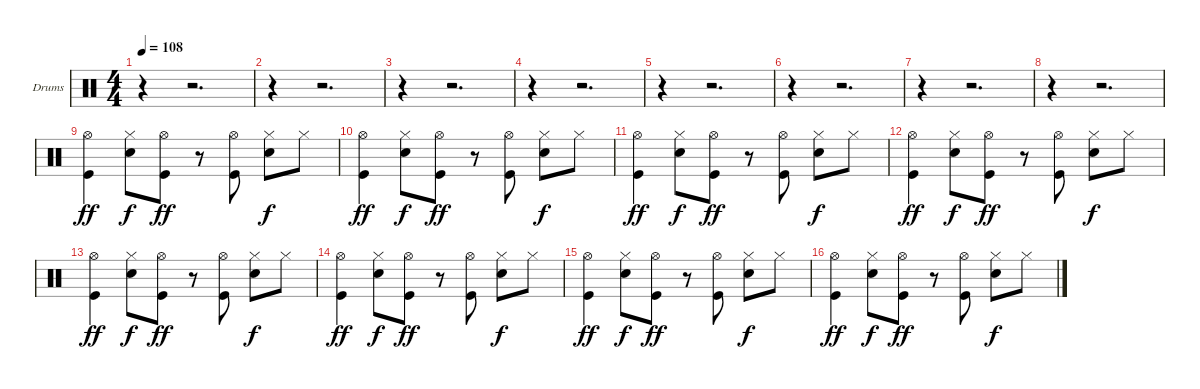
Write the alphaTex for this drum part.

\bracketExtendMode groupsimilarinstruments
\firstSystemTrackNameOrientation horizontal
\otherSystemsTrackNameOrientation horizontal
\track ("Drumkit" "Drums") {instrument percussion}
\staff {score}
\articulation defaults
\ts (4 4)
\tempo 108
\clef neutral
\ks c
r.4{dy f} r.2{d} |
r.4 r.2{d} |
r.4 r.2{d} |
r.4 r.2{d} |
r.4 r.2{d} |
r.4 r.2{d} |
r.4 r.2{d} |
r.4 r.2{d} |
("Hi-Hat (open)" "Kick (hit)").4{dy ff} ("Hi-Hat (closed)" "Snare (hit) 2").8{dy f} ("Hi-Hat (open)" "Kick (hit)").8{dy ff} r.8 ("Hi-Hat (open)" "Kick (hit)").8 ("Hi-Hat (closed)" "Snare (hit) 2").8{dy f} "Hi-Hat (closed)".8 |
("Hi-Hat (open)" "Kick (hit)").4{dy ff} ("Hi-Hat (closed)" "Snare (hit) 2").8{dy f} ("Hi-Hat (open)" "Kick (hit)").8{dy ff} r.8 ("Hi-Hat (open)" "Kick (hit)").8 ("Hi-Hat (closed)" "Snare (hit) 2").8{dy f} "Hi-Hat (closed)".8 |
("Hi-Hat (open)" "Kick (hit)").4{dy ff} ("Hi-Hat (closed)" "Snare (hit) 2").8{dy f} ("Hi-Hat (open)" "Kick (hit)").8{dy ff} r.8 ("Hi-Hat (open)" "Kick (hit)").8 ("Hi-Hat (closed)" "Snare (hit) 2").8{dy f} "Hi-Hat (closed)".8 |
("Hi-Hat (open)" "Kick (hit)").4{dy ff} ("Hi-Hat (closed)" "Snare (hit) 2").8{dy f} ("Hi-Hat (open)" "Kick (hit)").8{dy ff} r.8 ("Hi-Hat (open)" "Kick (hit)").8 ("Hi-Hat (closed)" "Snare (hit) 2").8{dy f} "Hi-Hat (closed)".8 |
("Hi-Hat (open)" "Kick (hit)").4{dy ff} ("Hi-Hat (closed)" "Snare (hit) 2").8{dy f} ("Hi-Hat (open)" "Kick (hit)").8{dy ff} r.8 ("Hi-Hat (open)" "Kick (hit)").8 ("Hi-Hat (closed)" "Snare (hit) 2").8{dy f} "Hi-Hat (closed)".8 |
("Hi-Hat (open)" "Kick (hit)").4{dy ff} ("Hi-Hat (closed)" "Snare (hit) 2").8{dy f} ("Hi-Hat (open)" "Kick (hit)").8{dy ff} r.8 ("Hi-Hat (open)" "Kick (hit)").8 ("Hi-Hat (closed)" "Snare (hit) 2").8{dy f} "Hi-Hat (closed)".8 |
("Hi-Hat (open)" "Kick (hit)").4{dy ff} ("Hi-Hat (closed)" "Snare (hit) 2").8{dy f} ("Hi-Hat (open)" "Kick (hit)").8{dy ff} r.8 ("Hi-Hat (open)" "Kick (hit)").8 ("Hi-Hat (closed)" "Snare (hit) 2").8{dy f} "Hi-Hat (closed)".8 |
("Hi-Hat (open)" "Kick (hit)").4{dy ff} ("Hi-Hat (closed)" "Snare (hit) 2").8{dy f} ("Hi-Hat (open)" "Kick (hit)").8{dy ff} r.8 ("Hi-Hat (open)" "Kick (hit)").8 ("Hi-Hat (closed)" "Snare (hit) 2").8{dy f} "Hi-Hat (closed)".8
